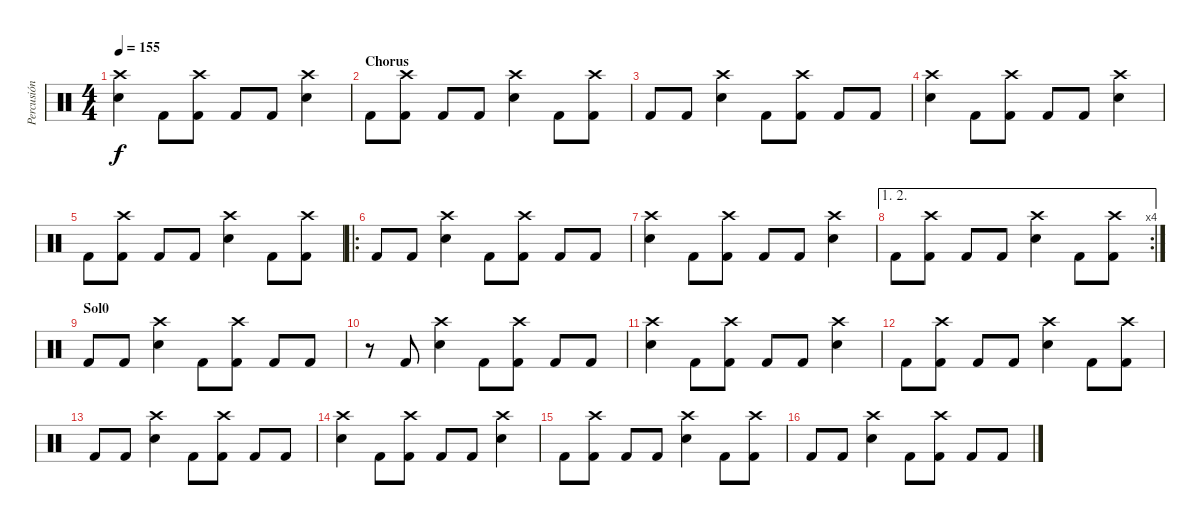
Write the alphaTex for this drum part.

\track ("Percusión" "Percusión") {instrument percussion}
\staff {score}
\articulation defaults
\ts (4 4)
\tempo 155
\clef neutral
\ks c
("Crash high (hit)" "Electric Snare (hit)").4{dy f} "Kick (hit) 2".8 ("Crash high (hit)" "Kick (hit) 2").8 "Kick (hit) 2".8 "Kick (hit) 2".8 ("Crash high (hit)" "Electric Snare (hit)").4 |
\section ("" "Chorus")
"Kick (hit) 2".8 ("Crash high (hit)" "Kick (hit) 2").8 "Kick (hit) 2".8 "Kick (hit) 2".8 ("Crash high (hit)" "Electric Snare (hit)").4 "Kick (hit) 2".8 ("Crash high (hit)" "Kick (hit) 2").8 |
"Kick (hit) 2".8 "Kick (hit) 2".8 ("Crash high (hit)" "Electric Snare (hit)").4 "Kick (hit) 2".8 ("Crash high (hit)" "Kick (hit) 2").8 "Kick (hit) 2".8 "Kick (hit) 2".8 |
("Crash high (hit)" "Electric Snare (hit)").4 "Kick (hit) 2".8 ("Crash high (hit)" "Kick (hit) 2").8 "Kick (hit) 2".8 "Kick (hit) 2".8 ("Crash high (hit)" "Electric Snare (hit)").4 |
"Kick (hit) 2".8 ("Crash high (hit)" "Kick (hit) 2").8 "Kick (hit) 2".8 "Kick (hit) 2".8 ("Crash high (hit)" "Electric Snare (hit)").4 "Kick (hit) 2".8 ("Crash high (hit)" "Kick (hit) 2").8 |
\ro "Kick (hit) 2".8 "Kick (hit) 2".8
("Crash high (hit)" "Electric Snare (hit)").4 "Kick (hit) 2".8 ("Crash high (hit)" "Kick (hit) 2").8 "Kick (hit) 2".8 "Kick (hit) 2".8 |
("Crash high (hit)" "Electric Snare (hit)").4 "Kick (hit) 2".8 ("Crash high (hit)" "Kick (hit) 2").8 "Kick (hit) 2".8 "Kick (hit) 2".8 ("Crash high (hit)" "Electric Snare (hit)").4 |
\ae (1 2)
\rc 4 "Kick (hit) 2".8
("Crash high (hit)" "Kick (hit) 2").8 "Kick (hit) 2".8 "Kick (hit) 2".8 ("Crash high (hit)" "Electric Snare (hit)").4 "Kick (hit) 2".8 ("Crash high (hit)" "Kick (hit) 2").8 |
\section ("" "Sol0")
"Kick (hit) 2".8 "Kick (hit) 2".8 ("Crash high (hit)" "Electric Snare (hit)").4 "Kick (hit) 2".8 ("Crash high (hit)" "Kick (hit) 2").8 "Kick (hit) 2".8 "Kick (hit) 2".8 |
r.8 "Kick (hit) 2".8 ("Electric Snare (hit)" "Crash high (hit)").4 "Kick (hit) 2".8 ("Crash high (hit)" "Kick (hit) 2").8 "Kick (hit) 2".8 "Kick (hit) 2".8 |
("Crash high (hit)" "Electric Snare (hit)").4 "Kick (hit) 2".8 ("Crash high (hit)" "Kick (hit) 2").8 "Kick (hit) 2".8 "Kick (hit) 2".8 ("Crash high (hit)" "Electric Snare (hit)").4 |
"Kick (hit) 2".8 ("Crash high (hit)" "Kick (hit) 2").8 "Kick (hit) 2".8 "Kick (hit) 2".8 ("Crash high (hit)" "Electric Snare (hit)").4 "Kick (hit) 2".8 ("Crash high (hit)" "Kick (hit) 2").8 |
"Kick (hit) 2".8 "Kick (hit) 2".8 ("Crash high (hit)" "Electric Snare (hit)").4 "Kick (hit) 2".8 ("Crash high (hit)" "Kick (hit) 2").8 "Kick (hit) 2".8 "Kick (hit) 2".8 |
("Crash high (hit)" "Electric Snare (hit)").4 "Kick (hit) 2".8 ("Crash high (hit)" "Kick (hit) 2").8 "Kick (hit) 2".8 "Kick (hit) 2".8 ("Crash high (hit)" "Electric Snare (hit)").4 |
"Kick (hit) 2".8 ("Crash high (hit)" "Kick (hit) 2").8 "Kick (hit) 2".8 "Kick (hit) 2".8 ("Crash high (hit)" "Electric Snare (hit)").4 "Kick (hit) 2".8 ("Crash high (hit)" "Kick (hit) 2").8 |
"Kick (hit) 2".8 "Kick (hit) 2".8 ("Crash high (hit)" "Electric Snare (hit)").4 "Kick (hit) 2".8 ("Crash high (hit)" "Kick (hit) 2").8 "Kick (hit) 2".8 "Kick (hit) 2".8
